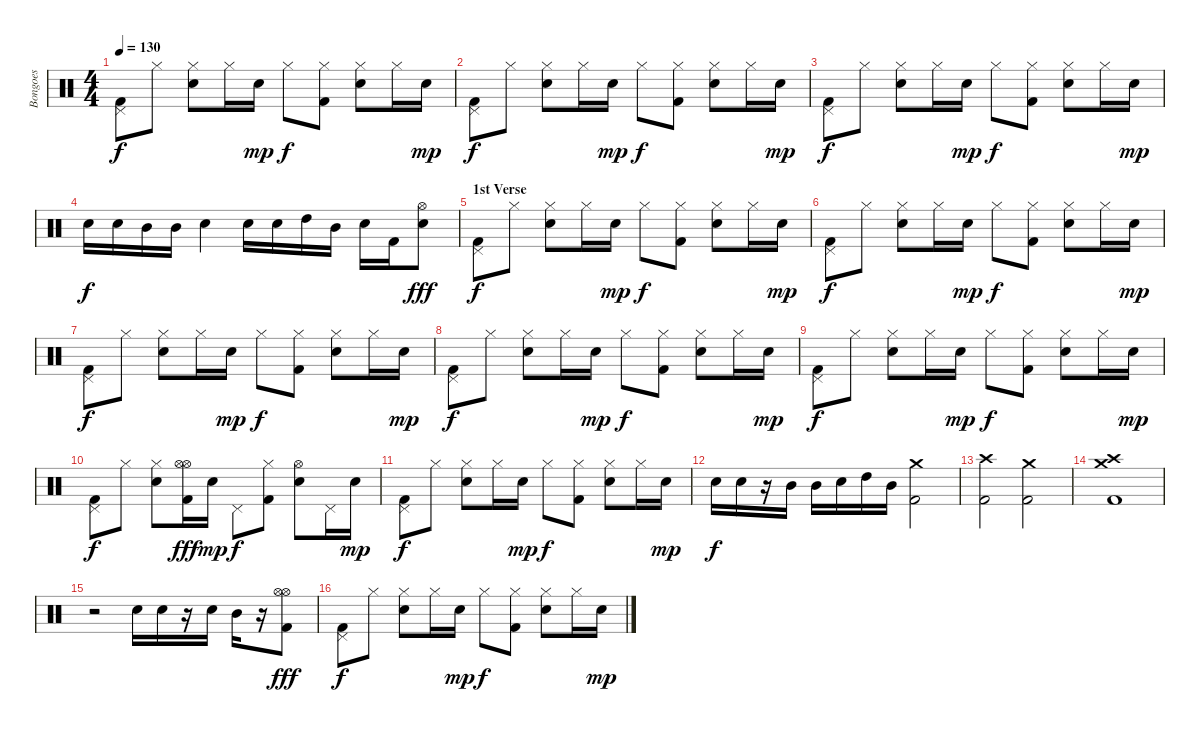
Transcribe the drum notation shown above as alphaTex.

\track ("Bongoes" "Bongoes") {instrument percussion}
\staff {score}
\articulation defaults
\ts (4 4)
\tempo 130
\clef neutral
\ks c
("Kick (hit) 2" "Pedal Hi-Hat (hit)").8{dy f} "Hi-Hat (closed)".8 ("Snare (hit) 2" "Hi-Hat (closed)").8 "Hi-Hat (closed)".16 "Snare (hit) 2".16{dy mp} "Hi-Hat (closed)".8{dy f} ("Kick (hit) 2" "Hi-Hat (closed)").8 ("Snare (hit) 2" "Hi-Hat (closed)").8 "Hi-Hat (closed)".16 "Snare (hit) 2".16{dy mp} |
("Kick (hit) 2" "Pedal Hi-Hat (hit)").8{dy f} "Hi-Hat (closed)".8 ("Snare (hit) 2" "Hi-Hat (closed)").8 "Hi-Hat (closed)".16 "Snare (hit) 2".16{dy mp} "Hi-Hat (closed)".8{dy f} ("Kick (hit) 2" "Hi-Hat (closed)").8 ("Snare (hit) 2" "Hi-Hat (closed)").8 "Hi-Hat (closed)".16 "Snare (hit) 2".16{dy mp} |
("Kick (hit) 2" "Pedal Hi-Hat (hit)").8{dy f} "Hi-Hat (closed)".8 ("Snare (hit) 2" "Hi-Hat (closed)").8 "Hi-Hat (closed)".16 "Snare (hit) 2".16{dy mp} "Hi-Hat (closed)".8{dy f} ("Kick (hit) 2" "Hi-Hat (closed)").8 ("Snare (hit) 2" "Hi-Hat (closed)").8 "Hi-Hat (closed)".16 "Snare (hit) 2".16{dy mp} |
"Snare (hit) 2".16{dy f} "Snare (hit) 2".16 "Mid Tom (hit)".16 "Mid Tom (hit)".16 "Snare (hit) 2".4 "Snare (hit) 2".16 "Snare (hit) 2".16 "High Tom (hit)".16 "Mid Tom (hit)".16 "Snare (hit) 2".16 "Kick (hit) 2".16 ("Snare (hit) 2" "Hi-Hat (open)").8{dy fff} |
\section ("" "1st Verse")
("Kick (hit) 2" "Pedal Hi-Hat (hit)").8{dy f} "Hi-Hat (closed)".8 ("Snare (hit) 2" "Hi-Hat (closed)").8 "Hi-Hat (closed)".16 "Snare (hit) 2".16{dy mp} "Hi-Hat (closed)".8{dy f} ("Kick (hit) 2" "Hi-Hat (closed)").8 ("Snare (hit) 2" "Hi-Hat (closed)").8 "Hi-Hat (closed)".16 "Snare (hit) 2".16{dy mp} |
("Kick (hit) 2" "Pedal Hi-Hat (hit)").8{dy f} "Hi-Hat (closed)".8 ("Snare (hit) 2" "Hi-Hat (closed)").8 "Hi-Hat (closed)".16 "Snare (hit) 2".16{dy mp} "Hi-Hat (closed)".8{dy f} ("Kick (hit) 2" "Hi-Hat (closed)").8 ("Snare (hit) 2" "Hi-Hat (closed)").8 "Hi-Hat (closed)".16 "Snare (hit) 2".16{dy mp} |
("Kick (hit) 2" "Pedal Hi-Hat (hit)").8{dy f} "Hi-Hat (closed)".8 ("Snare (hit) 2" "Hi-Hat (closed)").8 "Hi-Hat (closed)".16 "Snare (hit) 2".16{dy mp} "Hi-Hat (closed)".8{dy f} ("Kick (hit) 2" "Hi-Hat (closed)").8 ("Snare (hit) 2" "Hi-Hat (closed)").8 "Hi-Hat (closed)".16 "Snare (hit) 2".16{dy mp} |
("Kick (hit) 2" "Pedal Hi-Hat (hit)").8{dy f} "Hi-Hat (closed)".8 ("Snare (hit) 2" "Hi-Hat (closed)").8 "Hi-Hat (closed)".16 "Snare (hit) 2".16{dy mp} "Hi-Hat (closed)".8{dy f} ("Kick (hit) 2" "Hi-Hat (closed)").8 ("Snare (hit) 2" "Hi-Hat (closed)").8 "Hi-Hat (closed)".16 "Snare (hit) 2".16{dy mp} |
("Kick (hit) 2" "Pedal Hi-Hat (hit)").8{dy f} "Hi-Hat (closed)".8 ("Snare (hit) 2" "Hi-Hat (closed)").8 "Hi-Hat (closed)".16 "Snare (hit) 2".16{dy mp} "Hi-Hat (closed)".8{dy f} ("Kick (hit) 2" "Hi-Hat (closed)").8 ("Snare (hit) 2" "Hi-Hat (closed)").8 "Hi-Hat (closed)".16 "Snare (hit) 2".16{dy mp} |
("Kick (hit) 2" "Pedal Hi-Hat (hit)").8{dy f} "Hi-Hat (closed)".8 ("Snare (hit) 2" "Hi-Hat (closed)").8 ("Kick (hit) 2" "Hi-Hat (open)" "Hi-Hat (open)").16{dy fff} "Snare (hit) 2".16{dy mp} "Pedal Hi-Hat (hit)".8{dy f} ("Kick (hit) 2" "Hi-Hat (closed)").8 ("Snare (hit) 2" "Hi-Hat (open)").8 "Pedal Hi-Hat (hit)".16 "Snare (hit) 2".16{dy mp} |
("Kick (hit) 2" "Pedal Hi-Hat (hit)").8{dy f} "Hi-Hat (closed)".8 ("Snare (hit) 2" "Hi-Hat (closed)").8 "Hi-Hat (closed)".16 "Snare (hit) 2".16{dy mp} "Hi-Hat (closed)".8{dy f} ("Kick (hit) 2" "Hi-Hat (closed)").8 ("Snare (hit) 2" "Hi-Hat (closed)").8 "Hi-Hat (closed)".16 "Snare (hit) 2".16{dy mp} |
"Snare (hit) 2".16{dy f} "Snare (hit) 2".16 r.16 "Mid Tom (hit)".16 "Mid Tom (hit)".16 "Snare (hit) 2".16 "High Tom (hit)".16 "Mid Tom (hit)".16 ("Kick (hit) 2" "Crash medium (hit)").2 |
("Kick (hit) 2" "Crash high (hit)").2 ("Kick (hit) 2" "Crash medium (hit)").2 |
("Kick (hit) 2" "Crash medium (hit)" "Crash high (hit)").1 |
r.2 "Snare (hit) 2".16 "Snare (hit) 2".16 r.16 "Snare (hit) 2".16 "Mid Tom (hit)".16 r.16 ("Kick (hit) 2" "Hi-Hat (open)" "Hi-Hat (open)").8{dy fff} |
("Kick (hit) 2" "Pedal Hi-Hat (hit)").8{dy f} "Hi-Hat (closed)".8 ("Snare (hit) 2" "Hi-Hat (closed)").8 "Hi-Hat (closed)".16 "Snare (hit) 2".16{dy mp} "Hi-Hat (closed)".8{dy f} ("Kick (hit) 2" "Hi-Hat (closed)").8 ("Snare (hit) 2" "Hi-Hat (closed)").8 "Hi-Hat (closed)".16 "Snare (hit) 2".16{dy mp}
